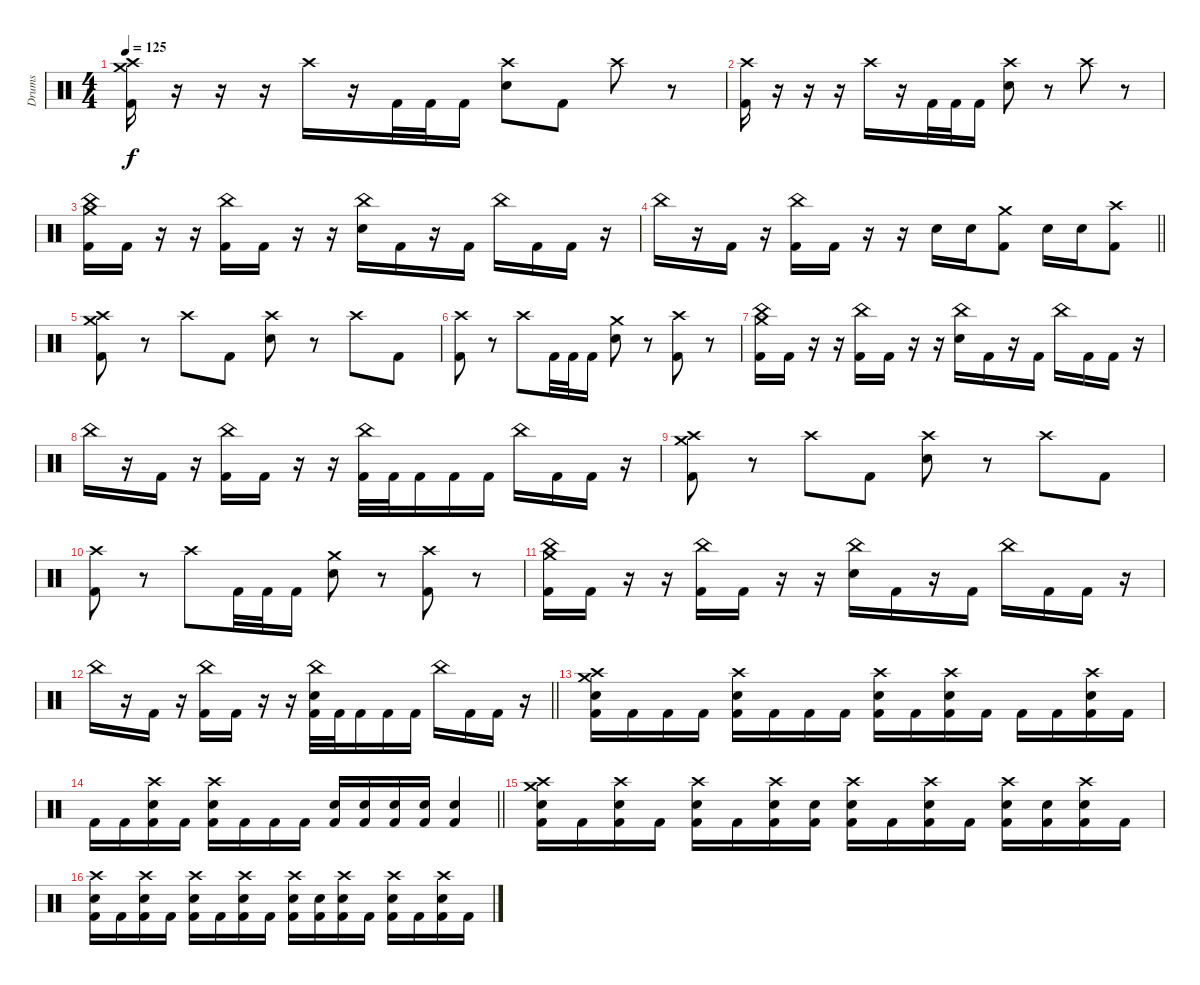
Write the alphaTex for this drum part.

\track ("Drums" "Drums") {instrument percussion}
\staff {score}
\articulation defaults
\ts (4 4)
\tempo 125
\clef neutral
\ks c
("Crash medium (hit)" "Crash high (hit)" "Kick (hit) 2").16{dy f} r.16 r.16 r.16 "Crash high (hit)".16 r.16 "Kick (hit) 2".32 "Kick (hit) 2".32 "Kick (hit) 2".16 ("Crash high (hit)" "Electric Snare (hit)").8 "Kick (hit) 2".8 "Crash high (hit)".8 r.8 |
("Crash high (hit)" "Kick (hit) 2").16 r.16 r.16 r.16 "Crash high (hit)".16 r.16 "Kick (hit) 2".32 "Kick (hit) 2".32 "Kick (hit) 2".16 ("Crash high (hit)" "Electric Snare (hit)").8 r.8 "Crash high (hit)".8 r.8 |
("China (hit)" "Crash medium (hit)" "Kick (hit) 2").16 "Kick (hit) 2".16 r.16 r.16 ("China (hit)" "Kick (hit) 2").16 "Kick (hit) 2".16 r.16 r.16 ("China (hit)" "Electric Snare (hit)").16 "Kick (hit) 2".16 r.16 "Kick (hit) 2".16 "China (hit)".16 "Kick (hit) 2".16 "Kick (hit) 2".16 r.16 |
\barLineRight lightlight "China (hit)".16
r.16 "Kick (hit) 2".16 r.16 ("China (hit)" "Kick (hit) 2").16 "Kick (hit) 2".16 r.16 r.16 "Electric Snare (hit)".16 "Electric Snare (hit)".16 ("Crash medium (hit)" "Kick (hit) 2").8 "Electric Snare (hit)".16 "Electric Snare (hit)".16 ("Crash high (hit)" "Kick (hit) 2").8 |
\section ("" "")
("Crash medium (hit)" "Crash high (hit)" "Kick (hit) 2").8 r.8 "Crash high (hit)".8 "Kick (hit) 2".8 ("Crash high (hit)" "Electric Snare (hit)").8 r.8 "Crash high (hit)".8 "Kick (hit) 2".8 |
("Crash high (hit)" "Kick (hit) 2").8 r.8 "Crash high (hit)".8 "Kick (hit) 2".32 "Kick (hit) 2".32 "Kick (hit) 2".16 ("Crash medium (hit)" "Electric Snare (hit)").8 r.8 ("Crash high (hit)" "Kick (hit) 2").8 r.8 |
("China (hit)" "Crash medium (hit)" "Kick (hit) 2").16 "Kick (hit) 2".16 r.16 r.16 ("China (hit)" "Kick (hit) 2").16 "Kick (hit) 2".16 r.16 r.16 ("China (hit)" "Electric Snare (hit)").16 "Kick (hit) 2".16 r.16 "Kick (hit) 2".16 "China (hit)".16 "Kick (hit) 2".16 "Kick (hit) 2".16 r.16 |
"China (hit)".16 r.16 "Kick (hit) 2".16 r.16 ("China (hit)" "Kick (hit) 2").16 "Kick (hit) 2".16 r.16 r.16 ("China (hit)" "Kick (hit) 2").32 "Kick (hit) 2".32 "Kick (hit) 2".16 "Kick (hit) 2".16 "Kick (hit) 2".16 "China (hit)".16 "Kick (hit) 2".16 "Kick (hit) 2".16 r.16 |
("Crash medium (hit)" "Crash high (hit)" "Kick (hit) 2").8 r.8 "Crash high (hit)".8 "Kick (hit) 2".8 ("Crash high (hit)" "Electric Snare (hit)").8 r.8 "Crash high (hit)".8 "Kick (hit) 2".8 |
("Crash high (hit)" "Kick (hit) 2").8 r.8 "Crash high (hit)".8 "Kick (hit) 2".32 "Kick (hit) 2".32 "Kick (hit) 2".16 ("Crash medium (hit)" "Electric Snare (hit)").8 r.8 ("Crash high (hit)" "Kick (hit) 2").8 r.8 |
("China (hit)" "Crash medium (hit)" "Kick (hit) 2").16 "Kick (hit) 2".16 r.16 r.16 ("China (hit)" "Kick (hit) 2").16 "Kick (hit) 2".16 r.16 r.16 ("China (hit)" "Electric Snare (hit)").16 "Kick (hit) 2".16 r.16 "Kick (hit) 2".16 "China (hit)".16 "Kick (hit) 2".16 "Kick (hit) 2".16 r.16 |
\barLineRight lightlight "China (hit)".16
r.16 "Kick (hit) 2".16 r.16 ("China (hit)" "Kick (hit) 2").16 "Kick (hit) 2".16 r.16 r.16 ("China (hit)" "Electric Snare (hit)" "Kick (hit) 2").32 "Kick (hit) 2".32 "Kick (hit) 2".16 "Kick (hit) 2".16 "Kick (hit) 2".16 "China (hit)".16 "Kick (hit) 2".16 "Kick (hit) 2".16 r.16 |
\section ("" "")
("Crash medium (hit)" "Crash high (hit)" "Electric Snare (hit)" "Kick (hit) 2").16 "Kick (hit) 2".16 "Kick (hit) 2".16 "Kick (hit) 2".16 ("Crash high (hit)" "Electric Snare (hit)" "Kick (hit) 2").16 "Kick (hit) 2".16 "Kick (hit) 2".16 "Kick (hit) 2".16 ("Crash high (hit)" "Electric Snare (hit)" "Kick (hit) 2").16 "Kick (hit) 2".16 ("Crash high (hit)" "Electric Snare (hit)" "Kick (hit) 2").16 "Kick (hit) 2".16 "Kick (hit) 2".16 "Kick (hit) 2".16 ("Crash high (hit)" "Electric Snare (hit)" "Kick (hit) 2").16 "Kick (hit) 2".16 |
\barLineRight lightlight "Kick (hit) 2".16 "Kick (hit) 2".16
("Crash high (hit)" "Electric Snare (hit)" "Kick (hit) 2").16 "Kick (hit) 2".16 ("Crash high (hit)" "Electric Snare (hit)" "Kick (hit) 2").16 "Kick (hit) 2".16 "Kick (hit) 2".16 "Kick (hit) 2".16 ("Electric Snare (hit)" "Kick (hit) 2").16 ("Electric Snare (hit)" "Kick (hit) 2").16 ("Electric Snare (hit)" "Kick (hit) 2").16 ("Electric Snare (hit)" "Kick (hit) 2").16 ("Electric Snare (hit)" "Kick (hit) 2").4 |
\section ("" "")
("Crash medium (hit)" "Crash high (hit)" "Electric Snare (hit)" "Kick (hit) 2").16 "Kick (hit) 2".16 ("Crash high (hit)" "Electric Snare (hit)" "Kick (hit) 2").16 "Kick (hit) 2".16 ("Crash high (hit)" "Electric Snare (hit)" "Kick (hit) 2").16 "Kick (hit) 2".16 ("Crash high (hit)" "Electric Snare (hit)" "Kick (hit) 2").16 ("Electric Snare (hit)" "Kick (hit) 2").16 ("Crash high (hit)" "Electric Snare (hit)" "Kick (hit) 2").16 "Kick (hit) 2".16 ("Crash high (hit)" "Electric Snare (hit)" "Kick (hit) 2").16 "Kick (hit) 2".16 ("Crash high (hit)" "Electric Snare (hit)" "Kick (hit) 2").16 ("Electric Snare (hit)" "Kick (hit) 2").16 ("Crash high (hit)" "Electric Snare (hit)" "Kick (hit) 2").16 "Kick (hit) 2".16 |
("Crash high (hit)" "Electric Snare (hit)" "Kick (hit) 2").16 "Kick (hit) 2".16 ("Crash high (hit)" "Electric Snare (hit)" "Kick (hit) 2").16 "Kick (hit) 2".16 ("Crash high (hit)" "Electric Snare (hit)" "Kick (hit) 2").16 "Kick (hit) 2".16 ("Crash high (hit)" "Electric Snare (hit)" "Kick (hit) 2").16 "Kick (hit) 2".16 ("Crash high (hit)" "Electric Snare (hit)" "Kick (hit) 2").16 ("Electric Snare (hit)" "Kick (hit) 2").16 ("Crash high (hit)" "Electric Snare (hit)" "Kick (hit) 2").16 "Kick (hit) 2".16 ("Crash high (hit)" "Electric Snare (hit)" "Kick (hit) 2").16 "Kick (hit) 2".16 ("Crash high (hit)" "Electric Snare (hit)" "Kick (hit) 2").16 "Kick (hit) 2".16
